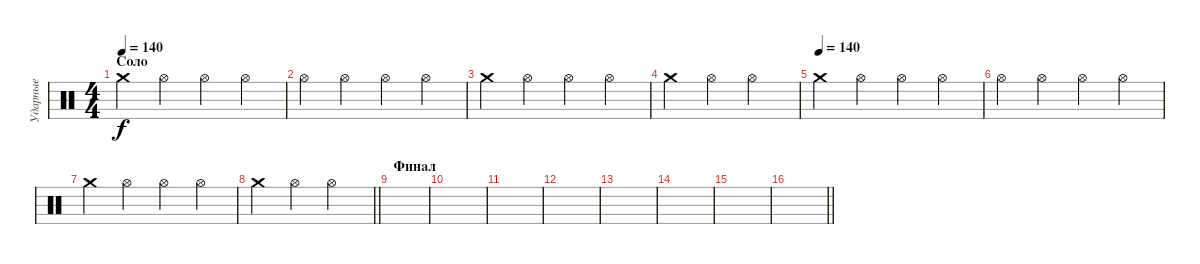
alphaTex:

\track ("Ударные" "Ударные") {instrument percussion}
\staff {score}
\articulation defaults
\ts (4 4)
\section ("" "Соло")
\tempo 140
\clef neutral
\ks c "Crash medium (hit)".4{dy f} "Hi-Hat (open)".4 "Hi-Hat (open)".4 "Hi-Hat (open)".4
|
"Hi-Hat (open)".4 "Hi-Hat (open)".4 "Hi-Hat (open)".4 "Hi-Hat (open)".4 |
"Crash medium (hit)".4 "Hi-Hat (open)".4 "Hi-Hat (open)".4 "Hi-Hat (open)".4 |
"Crash medium (hit)".4 "Hi-Hat (open)".4 "Hi-Hat (open)".2 |
\tempo (140)
"Crash medium (hit)".4 "Hi-Hat (open)".4 "Hi-Hat (open)".4 "Hi-Hat (open)".4 |
"Hi-Hat (open)".4 "Hi-Hat (open)".4 "Hi-Hat (open)".4 "Hi-Hat (open)".4 |
"Crash medium (hit)".4 "Hi-Hat (open)".4 "Hi-Hat (open)".4 "Hi-Hat (open)".4 |
\barLineRight lightlight "Crash medium (hit)".4 "Hi-Hat (open)".4 "Hi-Hat (open)".2
|
\section ("" "Финал")
|
|
|
|
|
|
|
\barLineRight lightlight
